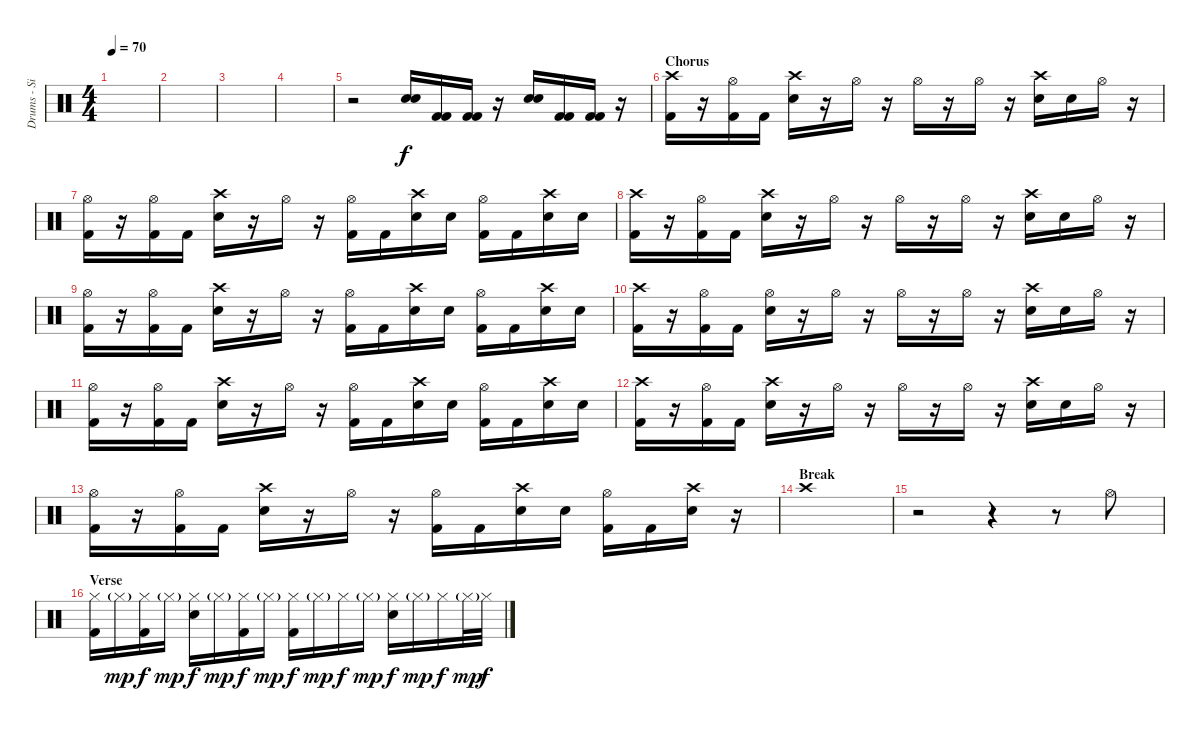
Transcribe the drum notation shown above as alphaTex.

\track ("Drums - Si" "Drums - Si") {instrument percussion}
\staff {score}
\articulation defaults
\ts (4 4)
\tempo 70
\clef neutral
\ks c
|
|
|
|
r.2 ("Snare (hit) 2" "Snare (hit) 2").16 ("Kick (hit) 2" "Kick (hit) 2").16 ("Kick (hit) 2" "Kick (hit) 2").16 r.16 ("Snare (hit) 2" "Snare (hit) 2").16 ("Kick (hit) 2" "Kick (hit) 2").16 ("Kick (hit) 2" "Kick (hit) 2").16 r.16 |
\section ("" "Chorus")
("Crash high (hit)" "Kick (hit) 2").16 r.16 ("Hi-Hat (open)" "Kick (hit) 2").16 "Kick (hit) 2".16 ("Crash high (hit)" "Snare (hit) 2").16 r.16 "Hi-Hat (open)".16 r.16 "Hi-Hat (open)".16 r.16 "Hi-Hat (open)".16 r.16 ("Crash high (hit)" "Snare (hit) 2").16 "Snare (hit) 2".16 "Hi-Hat (open)".16 r.16 |
("Hi-Hat (open)" "Kick (hit) 2").16 r.16 ("Hi-Hat (open)" "Kick (hit) 2").16 "Kick (hit) 2".16 ("Crash high (hit)" "Snare (hit) 2").16 r.16 "Hi-Hat (open)".16 r.16 ("Hi-Hat (open)" "Kick (hit) 2").16 "Kick (hit) 2".16 ("Crash high (hit)" "Snare (hit) 2").16 "Snare (hit) 2".16 ("Hi-Hat (open)" "Kick (hit) 2").16 "Kick (hit) 2".16 ("Crash high (hit)" "Snare (hit) 2").16 "Snare (hit) 2".16 |
("Crash high (hit)" "Kick (hit) 2").16 r.16 ("Hi-Hat (open)" "Kick (hit) 2").16 "Kick (hit) 2".16 ("Crash high (hit)" "Snare (hit) 2").16 r.16 "Hi-Hat (open)".16 r.16 "Hi-Hat (open)".16 r.16 "Hi-Hat (open)".16 r.16 ("Crash high (hit)" "Snare (hit) 2").16 "Snare (hit) 2".16 "Hi-Hat (open)".16 r.16 |
("Hi-Hat (open)" "Kick (hit) 2").16 r.16 ("Hi-Hat (open)" "Kick (hit) 2").16 "Kick (hit) 2".16 ("Crash high (hit)" "Snare (hit) 2").16 r.16 "Hi-Hat (open)".16 r.16 ("Hi-Hat (open)" "Kick (hit) 2").16 "Kick (hit) 2".16 ("Crash high (hit)" "Snare (hit) 2").16 "Snare (hit) 2".16 ("Hi-Hat (open)" "Kick (hit) 2").16 "Kick (hit) 2".16 ("Crash high (hit)" "Snare (hit) 2").16 "Snare (hit) 2".16 |
("Crash high (hit)" "Kick (hit) 2").16 r.16 ("Hi-Hat (open)" "Kick (hit) 2").16 "Kick (hit) 2".16 ("Hi-Hat (open)" "Snare (hit) 2").16 r.16 "Hi-Hat (open)".16 r.16 "Hi-Hat (open)".16 r.16 "Hi-Hat (open)".16 r.16 ("Crash high (hit)" "Snare (hit) 2").16 "Snare (hit) 2".16 "Hi-Hat (open)".16 r.16 |
("Hi-Hat (open)" "Kick (hit) 2").16 r.16 ("Hi-Hat (open)" "Kick (hit) 2").16 "Kick (hit) 2".16 ("Crash high (hit)" "Snare (hit) 2").16 r.16 "Hi-Hat (open)".16 r.16 ("Hi-Hat (open)" "Kick (hit) 2").16 "Kick (hit) 2".16 ("Crash high (hit)" "Snare (hit) 2").16 "Snare (hit) 2".16 ("Hi-Hat (open)" "Kick (hit) 2").16 "Kick (hit) 2".16 ("Crash high (hit)" "Snare (hit) 2").16 "Snare (hit) 2".16 |
("Crash high (hit)" "Kick (hit) 2").16 r.16 ("Hi-Hat (open)" "Kick (hit) 2").16 "Kick (hit) 2".16 ("Crash high (hit)" "Snare (hit) 2").16 r.16 "Hi-Hat (open)".16 r.16 "Hi-Hat (open)".16 r.16 "Hi-Hat (open)".16 r.16 ("Crash high (hit)" "Snare (hit) 2").16 "Snare (hit) 2".16 "Hi-Hat (open)".16 r.16 |
("Hi-Hat (open)" "Kick (hit) 2").16 r.16 ("Hi-Hat (open)" "Kick (hit) 2").16 "Kick (hit) 2".16 ("Crash high (hit)" "Snare (hit) 2").16 r.16 "Hi-Hat (open)".16 r.16 ("Hi-Hat (open)" "Kick (hit) 2").16 "Kick (hit) 2".16 ("Crash high (hit)" "Snare (hit) 2").16 "Snare (hit) 2".16 ("Hi-Hat (open)" "Kick (hit) 2").16 "Kick (hit) 2".16 ("Crash high (hit)" "Snare (hit) 2").16 r.16 |
\section ("" "Break")
"Crash high (hit)".1 |
r.2 r.4 r.8 "Hi-Hat (open)".8 |
\section ("" "Verse")
("Hi-Hat (closed)" "Kick (hit) 2").16 "Hi-Hat (closed)"{g}.16{dy mp} ("Hi-Hat (closed)" "Kick (hit) 2").16{dy f} "Hi-Hat (closed)"{g}.16{dy mp} ("Hi-Hat (closed)" "Snare (hit) 2").16{dy f} "Hi-Hat (closed)"{g}.16{dy mp} ("Hi-Hat (closed)" "Kick (hit) 2").16{dy f} "Hi-Hat (closed)"{g}.16{dy mp} ("Hi-Hat (closed)" "Kick (hit) 2").16{dy f} "Hi-Hat (closed)"{g}.16{dy mp} "Hi-Hat (closed)".16{dy f} "Hi-Hat (closed)"{g}.16{dy mp} ("Hi-Hat (closed)" "Snare (hit) 2").16{dy f} "Hi-Hat (closed)"{g}.16{dy mp} "Hi-Hat (closed)".16{dy f} "Hi-Hat (closed)"{g}.32{dy mp} "Hi-Hat (closed)".32{dy f}
